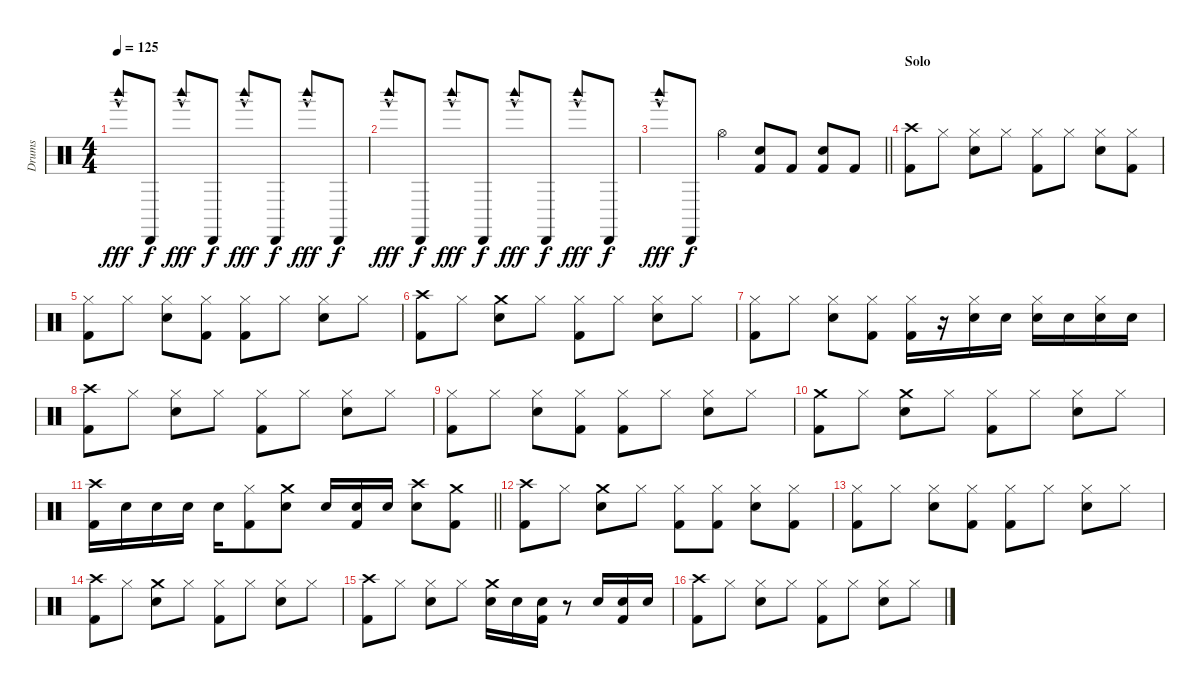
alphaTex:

\track ("Drums" "Drums") {instrument percussion}
\staff {score}
\articulation defaults
\ts (4 4)
\tempo 125
\clef neutral
\ks c "Woodblock high (hit)"{hac}.8{dy fff} "Cabasa (hit)".8{dy f} "Woodblock high (hit)"{hac}.8{dy fff} "Cabasa (hit)".8{dy f} "Woodblock high (hit)"{hac}.8{dy fff} "Cabasa (hit)".8{dy f} "Woodblock high (hit)"{hac}.8{dy fff} "Cabasa (hit)".8{dy f}
|
"Woodblock high (hit)"{hac}.8{dy fff} "Cabasa (hit)".8{dy f} "Woodblock high (hit)"{hac}.8{dy fff} "Cabasa (hit)".8{dy f} "Woodblock high (hit)"{hac}.8{dy fff} "Cabasa (hit)".8{dy f} "Woodblock high (hit)"{hac}.8{dy fff} "Cabasa (hit)".8{dy f} |
\barLineRight lightlight "Woodblock high (hit)"{hac}.8{dy fff} "Cabasa (hit)".8{dy f} "Hi-Hat (open)".4
("Kick (hit) 2" "Electric Snare (hit)").8 "Kick (hit) 2".8 ("Kick (hit) 2" "Electric Snare (hit)").8 "Kick (hit) 2".8 |
\section ("" "Solo")
("Crash high (hit)" "Kick (hit) 2").8 "Hi-Hat (closed)".8 ("Hi-Hat (closed)" "Electric Snare (hit)").8 "Hi-Hat (closed)".8 ("Hi-Hat (closed)" "Kick (hit) 2").8 "Hi-Hat (closed)".8 ("Hi-Hat (closed)" "Electric Snare (hit)").8 ("Hi-Hat (closed)" "Kick (hit) 2").8 |
("Hi-Hat (closed)" "Kick (hit) 2").8 "Hi-Hat (closed)".8 ("Hi-Hat (closed)" "Electric Snare (hit)").8 ("Hi-Hat (closed)" "Kick (hit) 2").8 ("Hi-Hat (closed)" "Kick (hit) 2").8 "Hi-Hat (closed)".8 ("Hi-Hat (closed)" "Electric Snare (hit)").8 "Hi-Hat (closed)".8 |
("Crash high (hit)" "Kick (hit) 2").8 "Hi-Hat (closed)".8 ("Crash medium (hit)" "Electric Snare (hit)").8 "Hi-Hat (closed)".8 ("Hi-Hat (closed)" "Kick (hit) 2").8 "Hi-Hat (closed)".8 ("Hi-Hat (closed)" "Electric Snare (hit)").8 "Hi-Hat (closed)".8 |
("Hi-Hat (closed)" "Kick (hit) 2").8 "Hi-Hat (closed)".8 ("Hi-Hat (closed)" "Electric Snare (hit)").8 ("Hi-Hat (closed)" "Kick (hit) 2").8 ("Hi-Hat (closed)" "Kick (hit) 2").16 r.16 ("Hi-Hat (closed)" "Electric Snare (hit)").16 "Electric Snare (hit)".16 ("Hi-Hat (closed)" "Electric Snare (hit)").16 "Electric Snare (hit)".16 ("Hi-Hat (closed)" "Electric Snare (hit)").16 "Electric Snare (hit)".16 |
("Crash high (hit)" "Kick (hit) 2").8 "Hi-Hat (closed)".8 ("Hi-Hat (closed)" "Electric Snare (hit)").8 "Hi-Hat (closed)".8 ("Hi-Hat (closed)" "Kick (hit) 2").8 "Hi-Hat (closed)".8 ("Hi-Hat (closed)" "Electric Snare (hit)").8 "Hi-Hat (closed)".8 |
("Hi-Hat (closed)" "Kick (hit) 2").8 "Hi-Hat (closed)".8 ("Hi-Hat (closed)" "Electric Snare (hit)").8 ("Hi-Hat (closed)" "Kick (hit) 2").8 ("Hi-Hat (closed)" "Kick (hit) 2").8 "Hi-Hat (closed)".8 ("Hi-Hat (closed)" "Electric Snare (hit)").8 "Hi-Hat (closed)".8 |
("Crash medium (hit)" "Kick (hit) 2").8 "Hi-Hat (closed)".8 ("Crash medium (hit)" "Electric Snare (hit)").8 "Hi-Hat (closed)".8 ("Hi-Hat (closed)" "Kick (hit) 2").8 "Hi-Hat (closed)".8 ("Hi-Hat (closed)" "Electric Snare (hit)").8 "Hi-Hat (closed)".8 |
\barLineRight lightlight
("Crash high (hit)" "Kick (hit) 2").16 "Electric Snare (hit)".16 "Electric Snare (hit)".16 "Electric Snare (hit)".16 "Electric Snare (hit)".16 ("Hi-Hat (closed)" "Kick (hit) 2").8 ("Crash medium (hit)" "Electric Snare (hit)").8 "Electric Snare (hit)".16 ("Electric Snare (hit)" "Kick (hit) 2").16 "Electric Snare (hit)".16 ("Crash high (hit)" "Electric Snare (hit)").8 ("Crash medium (hit)" "Kick (hit) 2").8 |
("Crash high (hit)" "Kick (hit) 2").8 "Hi-Hat (closed)".8 ("Crash medium (hit)" "Electric Snare (hit)").8 "Hi-Hat (closed)".8 ("Hi-Hat (closed)" "Kick (hit) 2").8 ("Hi-Hat (closed)" "Kick (hit) 2").8 ("Hi-Hat (closed)" "Electric Snare (hit)").8 ("Hi-Hat (closed)" "Kick (hit) 2").8 |
("Hi-Hat (closed)" "Kick (hit) 2").8 "Hi-Hat (closed)".8 ("Hi-Hat (closed)" "Electric Snare (hit)").8 ("Hi-Hat (closed)" "Kick (hit) 2").8 ("Hi-Hat (closed)" "Kick (hit) 2").8 "Hi-Hat (closed)".8 ("Hi-Hat (closed)" "Electric Snare (hit)").8 "Hi-Hat (closed)".8 |
("Crash high (hit)" "Kick (hit) 2").8 "Hi-Hat (closed)".8 ("Crash medium (hit)" "Electric Snare (hit)").8 "Hi-Hat (closed)".8 ("Hi-Hat (closed)" "Kick (hit) 2").8 "Hi-Hat (closed)".8 ("Hi-Hat (closed)" "Electric Snare (hit)").8 "Hi-Hat (closed)".8 |
("Crash high (hit)" "Kick (hit) 2").8 "Hi-Hat (closed)".8 ("Hi-Hat (closed)" "Electric Snare (hit)").8 "Hi-Hat (closed)".8 ("Crash medium (hit)" "Electric Snare (hit)").16 "Electric Snare (hit)".16 ("Electric Snare (hit)" "Kick (hit) 2").16 r.8 "Electric Snare (hit)".16 ("Electric Snare (hit)" "Kick (hit) 2").16 "Electric Snare (hit)".16 |
("Crash high (hit)" "Kick (hit) 2").8 "Hi-Hat (closed)".8 ("Hi-Hat (closed)" "Electric Snare (hit)").8 "Hi-Hat (closed)".8 ("Hi-Hat (closed)" "Kick (hit) 2").8 "Hi-Hat (closed)".8 ("Hi-Hat (closed)" "Electric Snare (hit)").8 "Hi-Hat (closed)".8
